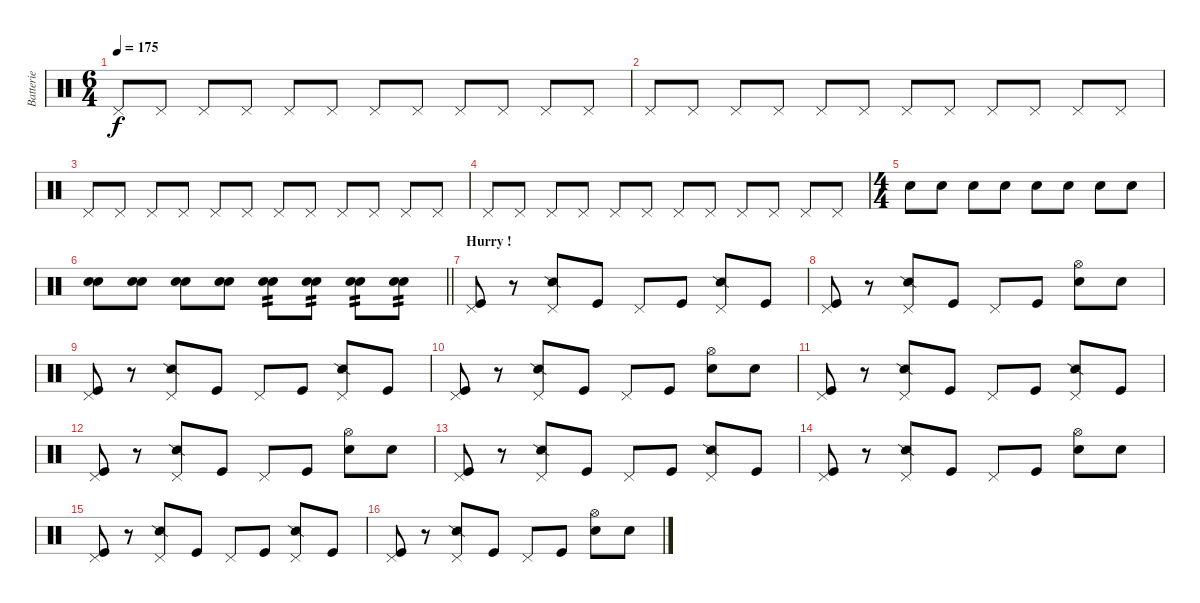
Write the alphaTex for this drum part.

\track ("Batterie" "Batterie") {instrument percussion}
\staff {score}
\articulation defaults
\ts (6 4)
\tempo 175
\clef neutral
\ks c "Pedal Hi-Hat (hit)".8{dy f} "Pedal Hi-Hat (hit)".8 "Pedal Hi-Hat (hit)".8 "Pedal Hi-Hat (hit)".8 "Pedal Hi-Hat (hit)".8 "Pedal Hi-Hat (hit)".8 "Pedal Hi-Hat (hit)".8 "Pedal Hi-Hat (hit)".8 "Pedal Hi-Hat (hit)".8 "Pedal Hi-Hat (hit)".8 "Pedal Hi-Hat (hit)".8 "Pedal Hi-Hat (hit)".8
|
"Pedal Hi-Hat (hit)".8 "Pedal Hi-Hat (hit)".8 "Pedal Hi-Hat (hit)".8 "Pedal Hi-Hat (hit)".8 "Pedal Hi-Hat (hit)".8 "Pedal Hi-Hat (hit)".8 "Pedal Hi-Hat (hit)".8 "Pedal Hi-Hat (hit)".8 "Pedal Hi-Hat (hit)".8 "Pedal Hi-Hat (hit)".8 "Pedal Hi-Hat (hit)".8 "Pedal Hi-Hat (hit)".8 |
"Pedal Hi-Hat (hit)".8 "Pedal Hi-Hat (hit)".8 "Pedal Hi-Hat (hit)".8 "Pedal Hi-Hat (hit)".8 "Pedal Hi-Hat (hit)".8 "Pedal Hi-Hat (hit)".8 "Pedal Hi-Hat (hit)".8 "Pedal Hi-Hat (hit)".8 "Pedal Hi-Hat (hit)".8 "Pedal Hi-Hat (hit)".8 "Pedal Hi-Hat (hit)".8 "Pedal Hi-Hat (hit)".8 |
"Pedal Hi-Hat (hit)".8 "Pedal Hi-Hat (hit)".8 "Pedal Hi-Hat (hit)".8 "Pedal Hi-Hat (hit)".8 "Pedal Hi-Hat (hit)".8 "Pedal Hi-Hat (hit)".8 "Pedal Hi-Hat (hit)".8 "Pedal Hi-Hat (hit)".8 "Pedal Hi-Hat (hit)".8 "Pedal Hi-Hat (hit)".8 "Pedal Hi-Hat (hit)".8 "Pedal Hi-Hat (hit)".8 |
\ts (4 4)
"Electric Snare (hit)".8 "Electric Snare (hit)".8 "Electric Snare (hit)".8 "Electric Snare (hit)".8 "Electric Snare (hit)".8 "Electric Snare (hit)".8 "Electric Snare (hit)".8 "Electric Snare (hit)".8 |
\barLineRight lightlight
("Snare (hit) 2" "Electric Snare (hit)").8 ("Snare (hit) 2" "Electric Snare (hit)").8 ("Snare (hit) 2" "Electric Snare (hit)").8 ("Snare (hit) 2" "Electric Snare (hit)").8 ("Snare (hit) 2" "Electric Snare (hit)").8{tp 2} ("Snare (hit) 2" "Electric Snare (hit)").8{tp 2} ("Snare (hit) 2" "Electric Snare (hit)").8{tp 2} ("Snare (hit) 2" "Electric Snare (hit)").8{tp 2} |
\section ("" "Hurry !")
("Kick (hit)" "Pedal Hi-Hat (hit)").8 r.8 ("Snare (side stick) 2" "Pedal Hi-Hat (hit)").8 "Kick (hit)".8 "Pedal Hi-Hat (hit)".8 "Kick (hit)".8 ("Snare (side stick) 2" "Pedal Hi-Hat (hit)").8 "Kick (hit)".8 |
("Kick (hit)" "Pedal Hi-Hat (hit)").8 r.8 ("Snare (side stick) 2" "Pedal Hi-Hat (hit)").8 "Kick (hit)".8 "Pedal Hi-Hat (hit)".8 "Kick (hit)".8 ("Electric Snare (hit)" "Hi-Hat (open)").8 "Electric Snare (hit)".8 |
("Kick (hit)" "Pedal Hi-Hat (hit)").8 r.8 ("Snare (side stick) 2" "Pedal Hi-Hat (hit)").8 "Kick (hit)".8 "Pedal Hi-Hat (hit)".8 "Kick (hit)".8 ("Snare (side stick) 2" "Pedal Hi-Hat (hit)").8 "Kick (hit)".8 |
("Kick (hit)" "Pedal Hi-Hat (hit)").8 r.8 ("Snare (side stick) 2" "Pedal Hi-Hat (hit)").8 "Kick (hit)".8 "Pedal Hi-Hat (hit)".8 "Kick (hit)".8 ("Electric Snare (hit)" "Hi-Hat (open)").8 "Electric Snare (hit)".8 |
("Kick (hit)" "Pedal Hi-Hat (hit)").8 r.8 ("Snare (side stick) 2" "Pedal Hi-Hat (hit)").8 "Kick (hit)".8 "Pedal Hi-Hat (hit)".8 "Kick (hit)".8 ("Snare (side stick) 2" "Pedal Hi-Hat (hit)").8 "Kick (hit)".8 |
("Kick (hit)" "Pedal Hi-Hat (hit)").8 r.8 ("Snare (side stick) 2" "Pedal Hi-Hat (hit)").8 "Kick (hit)".8 "Pedal Hi-Hat (hit)".8 "Kick (hit)".8 ("Electric Snare (hit)" "Hi-Hat (open)").8 "Electric Snare (hit)".8 |
("Kick (hit)" "Pedal Hi-Hat (hit)").8 r.8 ("Snare (side stick) 2" "Pedal Hi-Hat (hit)").8 "Kick (hit)".8 "Pedal Hi-Hat (hit)".8 "Kick (hit)".8 ("Snare (side stick) 2" "Pedal Hi-Hat (hit)").8 "Kick (hit)".8 |
("Kick (hit)" "Pedal Hi-Hat (hit)").8 r.8 ("Snare (side stick) 2" "Pedal Hi-Hat (hit)").8 "Kick (hit)".8 "Pedal Hi-Hat (hit)".8 "Kick (hit)".8 ("Electric Snare (hit)" "Hi-Hat (open)").8 "Electric Snare (hit)".8 |
("Kick (hit)" "Pedal Hi-Hat (hit)").8 r.8 ("Snare (side stick) 2" "Pedal Hi-Hat (hit)").8 "Kick (hit)".8 "Pedal Hi-Hat (hit)".8 "Kick (hit)".8 ("Snare (side stick) 2" "Pedal Hi-Hat (hit)").8 "Kick (hit)".8 |
("Kick (hit)" "Pedal Hi-Hat (hit)").8 r.8 ("Snare (side stick) 2" "Pedal Hi-Hat (hit)").8 "Kick (hit)".8 "Pedal Hi-Hat (hit)".8 "Kick (hit)".8 ("Electric Snare (hit)" "Hi-Hat (open)").8 "Electric Snare (hit)".8
